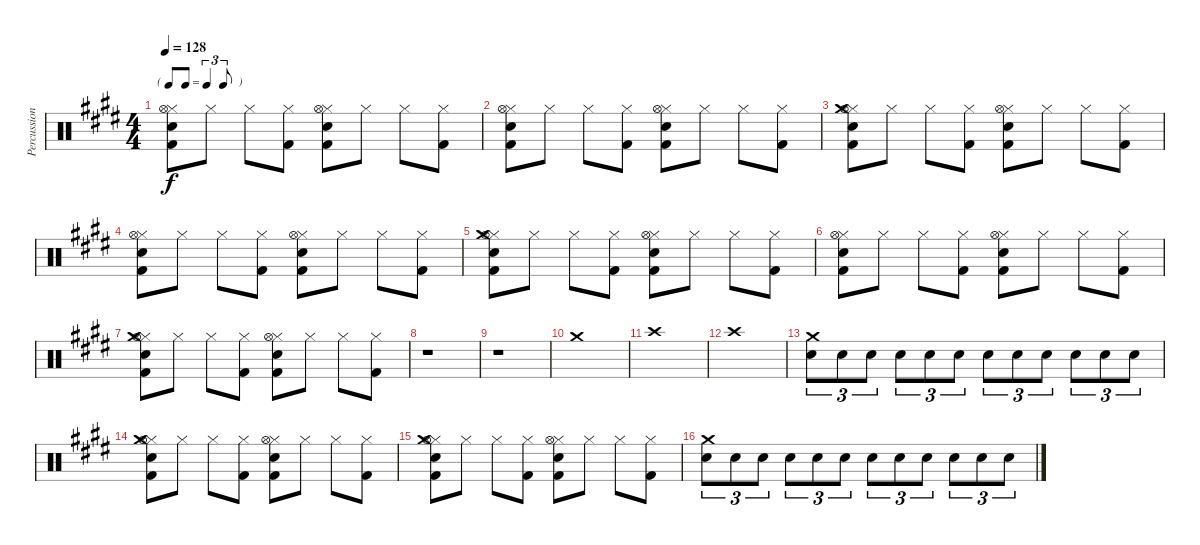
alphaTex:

\track ("Percussion" "Percussion") {instrument percussion}
\staff {score}
\articulation defaults
\ts (4 4)
\tf triplet8th
\tempo 128
\clef neutral
\ks e
("Kick (hit) 2" "Electric Snare (hit)" "Hi-Hat (closed)" "Hi-Hat (open)").8{dy f} "Hi-Hat (closed)".8 "Hi-Hat (closed)".8 ("Kick (hit) 2" "Hi-Hat (closed)").8 ("Kick (hit) 2" "Electric Snare (hit)" "Hi-Hat (closed)" "Hi-Hat (open)").8 "Hi-Hat (closed)".8 "Hi-Hat (closed)".8 ("Kick (hit) 2" "Hi-Hat (closed)").8 |
("Kick (hit) 2" "Electric Snare (hit)" "Hi-Hat (closed)" "Hi-Hat (open)").8 "Hi-Hat (closed)".8 "Hi-Hat (closed)".8 ("Kick (hit) 2" "Hi-Hat (closed)").8 ("Kick (hit) 2" "Electric Snare (hit)" "Hi-Hat (closed)" "Hi-Hat (open)").8 "Hi-Hat (closed)".8 "Hi-Hat (closed)".8 ("Kick (hit) 2" "Hi-Hat (closed)").8 |
("Kick (hit) 2" "Electric Snare (hit)" "Hi-Hat (closed)" "Crash medium (hit)" "Hi-Hat (open)").8 "Hi-Hat (closed)".8 "Hi-Hat (closed)".8 ("Kick (hit) 2" "Hi-Hat (closed)").8 ("Kick (hit) 2" "Electric Snare (hit)" "Hi-Hat (closed)" "Hi-Hat (open)").8 "Hi-Hat (closed)".8 "Hi-Hat (closed)".8 ("Kick (hit) 2" "Hi-Hat (closed)").8 |
("Kick (hit) 2" "Electric Snare (hit)" "Hi-Hat (closed)" "Hi-Hat (open)").8 "Hi-Hat (closed)".8 "Hi-Hat (closed)".8 ("Kick (hit) 2" "Hi-Hat (closed)").8 ("Kick (hit) 2" "Electric Snare (hit)" "Hi-Hat (closed)" "Hi-Hat (open)").8 "Hi-Hat (closed)".8 "Hi-Hat (closed)".8 ("Kick (hit) 2" "Hi-Hat (closed)").8 |
("Kick (hit) 2" "Electric Snare (hit)" "Hi-Hat (closed)" "Crash medium (hit)" "Hi-Hat (open)").8 "Hi-Hat (closed)".8 "Hi-Hat (closed)".8 ("Kick (hit) 2" "Hi-Hat (closed)").8 ("Kick (hit) 2" "Electric Snare (hit)" "Hi-Hat (closed)" "Hi-Hat (open)").8 "Hi-Hat (closed)".8 "Hi-Hat (closed)".8 ("Kick (hit) 2" "Hi-Hat (closed)").8 |
("Kick (hit) 2" "Electric Snare (hit)" "Hi-Hat (closed)" "Hi-Hat (open)").8 "Hi-Hat (closed)".8 "Hi-Hat (closed)".8 ("Kick (hit) 2" "Hi-Hat (closed)").8 ("Kick (hit) 2" "Electric Snare (hit)" "Hi-Hat (closed)" "Hi-Hat (open)").8 "Hi-Hat (closed)".8 "Hi-Hat (closed)".8 ("Kick (hit) 2" "Hi-Hat (closed)").8 |
("Kick (hit) 2" "Electric Snare (hit)" "Hi-Hat (closed)" "Crash medium (hit)" "Hi-Hat (open)").8 "Hi-Hat (closed)".8 "Hi-Hat (closed)".8 ("Kick (hit) 2" "Hi-Hat (closed)").8 ("Kick (hit) 2" "Electric Snare (hit)" "Hi-Hat (closed)" "Hi-Hat (open)").8 "Hi-Hat (closed)".8 "Hi-Hat (closed)".8 ("Kick (hit) 2" "Hi-Hat (closed)").8 |
r.1 |
r.1 |
"Crash medium (hit)".1 |
"Crash high (hit)".1 |
"Crash high (hit)".1 |
("Crash medium (hit)" "Electric Snare (hit)").8{tu (3 2)} "Electric Snare (hit)".8{tu (3 2)} "Electric Snare (hit)".8{tu (3 2)} "Electric Snare (hit)".8{tu (3 2)} "Electric Snare (hit)".8{tu (3 2)} "Electric Snare (hit)".8{tu (3 2)} "Electric Snare (hit)".8{tu (3 2)} "Electric Snare (hit)".8{tu (3 2)} "Electric Snare (hit)".8{tu (3 2)} "Electric Snare (hit)".8{tu (3 2)} "Electric Snare (hit)".8{tu (3 2)} "Electric Snare (hit)".8{tu (3 2)} |
("Kick (hit) 2" "Electric Snare (hit)" "Hi-Hat (closed)" "Crash medium (hit)" "Hi-Hat (open)").8 "Hi-Hat (closed)".8 "Hi-Hat (closed)".8 ("Kick (hit) 2" "Hi-Hat (closed)").8 ("Kick (hit) 2" "Electric Snare (hit)" "Hi-Hat (closed)" "Hi-Hat (open)").8 "Hi-Hat (closed)".8 "Hi-Hat (closed)".8 ("Kick (hit) 2" "Hi-Hat (closed)").8 |
("Kick (hit) 2" "Electric Snare (hit)" "Hi-Hat (closed)" "Crash medium (hit)" "Hi-Hat (open)").8 "Hi-Hat (closed)".8 "Hi-Hat (closed)".8 ("Kick (hit) 2" "Hi-Hat (closed)").8 ("Kick (hit) 2" "Electric Snare (hit)" "Hi-Hat (closed)" "Hi-Hat (open)").8 "Hi-Hat (closed)".8 "Hi-Hat (closed)".8 ("Kick (hit) 2" "Hi-Hat (closed)").8 |
("Crash medium (hit)" "Electric Snare (hit)").8{tu (3 2)} "Electric Snare (hit)".8{tu (3 2)} "Electric Snare (hit)".8{tu (3 2)} "Electric Snare (hit)".8{tu (3 2)} "Electric Snare (hit)".8{tu (3 2)} "Electric Snare (hit)".8{tu (3 2)} "Electric Snare (hit)".8{tu (3 2)} "Electric Snare (hit)".8{tu (3 2)} "Electric Snare (hit)".8{tu (3 2)} "Electric Snare (hit)".8{tu (3 2)} "Electric Snare (hit)".8{tu (3 2)} "Electric Snare (hit)".8{tu (3 2)}
